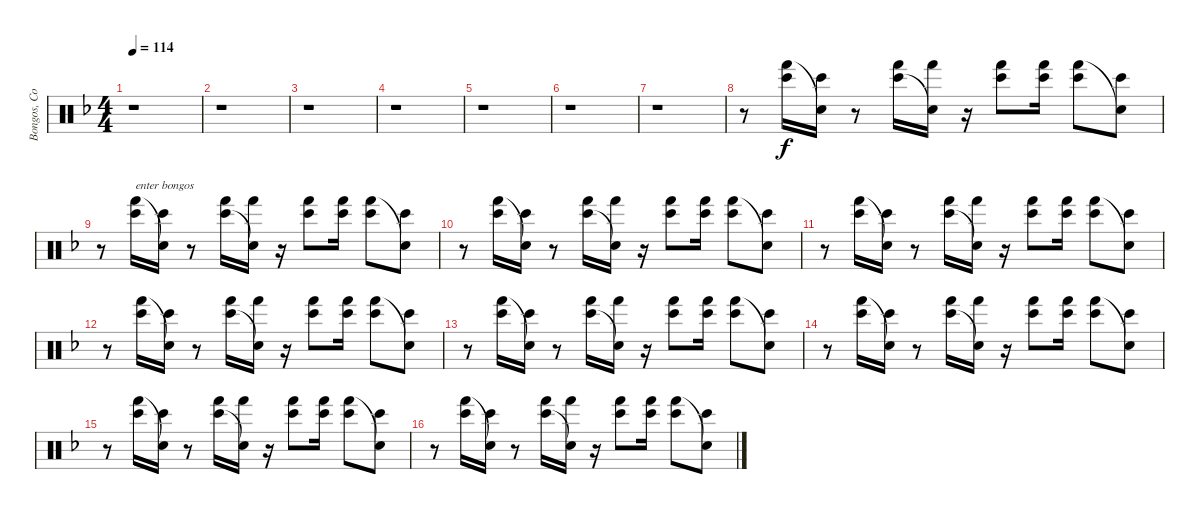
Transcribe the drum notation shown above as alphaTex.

\track ("Bongos, Congas, Timbales" "Bongos, Co") {instrument percussion}
\staff {score}
\articulation defaults
\ts (4 4)
\tempo 114
\clef neutral
\ks f
r.1{dy f} |
r.1 |
r.1 |
r.1 |
r.1 |
r.1 |
r.1 |
r.8 ("Bongo High (hit)" "Hand (hit)").16 ("Bongo High (hit)" "Snare (hit)"{t}).16 r.8 ("Bongo High (hit)" "Hand (hit)").16 ("Snare (hit)"{t} "Hand (hit)").16 r.16 ("Bongo High (hit)" "Hand (hit)").8 ("Bongo High (hit)" "Hand (hit)").16 ("Bongo High (hit)" "Hand (hit)").8 ("Bongo High (hit)" "Snare (hit)"{t}).8 |
r.8 ("Bongo High (hit)" "Hand (hit)").16{txt "enter bongos"} ("Bongo High (hit)" "Snare (hit)"{t}).16 r.8 ("Bongo High (hit)" "Hand (hit)").16 ("Snare (hit)"{t} "Hand (hit)").16 r.16 ("Bongo High (hit)" "Hand (hit)").8 ("Bongo High (hit)" "Hand (hit)").16 ("Bongo High (hit)" "Hand (hit)").8 ("Bongo High (hit)" "Snare (hit)"{t}).8 |
r.8 ("Bongo High (hit)" "Hand (hit)").16 ("Bongo High (hit)" "Snare (hit)"{t}).16 r.8 ("Bongo High (hit)" "Hand (hit)").16 ("Snare (hit)"{t} "Hand (hit)").16 r.16 ("Bongo High (hit)" "Hand (hit)").8 ("Bongo High (hit)" "Hand (hit)").16 ("Bongo High (hit)" "Hand (hit)").8 ("Bongo High (hit)" "Snare (hit)"{t}).8 |
r.8 ("Bongo High (hit)" "Hand (hit)").16 ("Bongo High (hit)" "Snare (hit)"{t}).16 r.8 ("Bongo High (hit)" "Hand (hit)").16 ("Snare (hit)"{t} "Hand (hit)").16 r.16 ("Bongo High (hit)" "Hand (hit)").8 ("Bongo High (hit)" "Hand (hit)").16 ("Bongo High (hit)" "Hand (hit)").8 ("Bongo High (hit)" "Snare (hit)"{t}).8 |
r.8 ("Bongo High (hit)" "Hand (hit)").16 ("Bongo High (hit)" "Snare (hit)"{t}).16 r.8 ("Bongo High (hit)" "Hand (hit)").16 ("Snare (hit)"{t} "Hand (hit)").16 r.16 ("Bongo High (hit)" "Hand (hit)").8 ("Bongo High (hit)" "Hand (hit)").16 ("Bongo High (hit)" "Hand (hit)").8 ("Bongo High (hit)" "Snare (hit)"{t}).8 |
r.8 ("Bongo High (hit)" "Hand (hit)").16 ("Bongo High (hit)" "Snare (hit)"{t}).16 r.8 ("Bongo High (hit)" "Hand (hit)").16 ("Snare (hit)"{t} "Hand (hit)").16 r.16 ("Bongo High (hit)" "Hand (hit)").8 ("Bongo High (hit)" "Hand (hit)").16 ("Bongo High (hit)" "Hand (hit)").8 ("Bongo High (hit)" "Snare (hit)"{t}).8 |
r.8 ("Bongo High (hit)" "Hand (hit)").16 ("Bongo High (hit)" "Snare (hit)"{t}).16 r.8 ("Bongo High (hit)" "Hand (hit)").16 ("Snare (hit)"{t} "Hand (hit)").16 r.16 ("Bongo High (hit)" "Hand (hit)").8 ("Bongo High (hit)" "Hand (hit)").16 ("Bongo High (hit)" "Hand (hit)").8 ("Bongo High (hit)" "Snare (hit)"{t}).8 |
r.8 ("Bongo High (hit)" "Hand (hit)").16 ("Bongo High (hit)" "Snare (hit)"{t}).16 r.8 ("Bongo High (hit)" "Hand (hit)").16 ("Snare (hit)"{t} "Hand (hit)").16 r.16 ("Bongo High (hit)" "Hand (hit)").8 ("Bongo High (hit)" "Hand (hit)").16 ("Bongo High (hit)" "Hand (hit)").8 ("Bongo High (hit)" "Snare (hit)"{t}).8 |
r.8 ("Bongo High (hit)" "Hand (hit)").16 ("Bongo High (hit)" "Snare (hit)"{t}).16 r.8 ("Bongo High (hit)" "Hand (hit)").16 ("Snare (hit)"{t} "Hand (hit)").16 r.16 ("Bongo High (hit)" "Hand (hit)").8 ("Bongo High (hit)" "Hand (hit)").16 ("Bongo High (hit)" "Hand (hit)").8 ("Bongo High (hit)" "Snare (hit)"{t}).8
